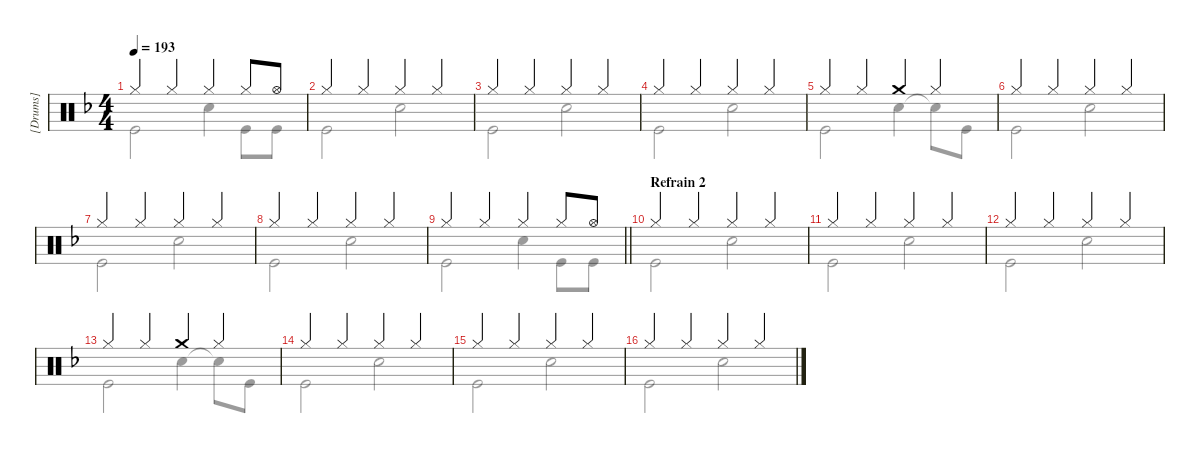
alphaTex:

\hideDynamics
\bracketExtendMode groupsimilarinstruments
\firstSystemTrackNameMode fullname
\otherSystemsTrackNameMode fullname
\otherSystemsTrackNameOrientation horizontal
\track ("[Drums]" "Drums") {instrument percussion}
\staff {score}
\articulation defaults
\voice
\ts (4 4)
\tempo 193
\clef neutral
\ks f "Hi-Hat (closed)".4{dy ff} "Hi-Hat (closed)".4 "Hi-Hat (closed)".4 "Hi-Hat (closed)".8 "Hi-Hat (open)".8
|
"Hi-Hat (closed)".4 "Hi-Hat (closed)".4 "Hi-Hat (closed)".4 "Hi-Hat (closed)".4 |
"Hi-Hat (closed)".4 "Hi-Hat (closed)".4 "Hi-Hat (closed)".4 "Hi-Hat (closed)".4 |
"Hi-Hat (closed)".4 "Hi-Hat (closed)".4 "Hi-Hat (closed)".4 "Hi-Hat (closed)".4 |
"Hi-Hat (closed)".4 "Hi-Hat (closed)".4 "Crash medium (hit)".4 "Hi-Hat (closed)".4 |
"Hi-Hat (closed)".4 "Hi-Hat (closed)".4 "Hi-Hat (closed)".4 "Hi-Hat (closed)".4 |
"Hi-Hat (closed)".4 "Hi-Hat (closed)".4 "Hi-Hat (closed)".4 "Hi-Hat (closed)".4 |
"Hi-Hat (closed)".4 "Hi-Hat (closed)".4 "Hi-Hat (closed)".4 "Hi-Hat (closed)".4 |
\barLineRight lightlight "Hi-Hat (closed)".4 "Hi-Hat (closed)".4 "Hi-Hat (closed)".4 "Hi-Hat (closed)".8 "Hi-Hat (open)".8
|
\section ("" "Refrain 2")
"Hi-Hat (closed)".4 "Hi-Hat (closed)".4 "Hi-Hat (closed)".4 "Hi-Hat (closed)".4 |
"Hi-Hat (closed)".4 "Hi-Hat (closed)".4 "Hi-Hat (closed)".4 "Hi-Hat (closed)".4 |
"Hi-Hat (closed)".4 "Hi-Hat (closed)".4 "Hi-Hat (closed)".4 "Hi-Hat (closed)".4 |
"Hi-Hat (closed)".4 "Hi-Hat (closed)".4 "Crash medium (hit)".4 "Hi-Hat (closed)".4 |
"Hi-Hat (closed)".4 "Hi-Hat (closed)".4 "Hi-Hat (closed)".4 "Hi-Hat (closed)".4 |
"Hi-Hat (closed)".4 "Hi-Hat (closed)".4 "Hi-Hat (closed)".4 "Hi-Hat (closed)".4 |
"Hi-Hat (closed)".4 "Hi-Hat (closed)".4 "Hi-Hat (closed)".4 "Hi-Hat (closed)".4
\voice
\clef neutral
\ottava regular
\simile none
\ks f "Kick (hit)".2{dy f} "Snare (hit) 2".4 "Kick (hit)".8 "Kick (hit)".8
|
"Kick (hit)".2 "Snare (hit) 2".2 |
"Kick (hit)".2 "Snare (hit) 2".2 |
"Kick (hit)".2 "Snare (hit) 2".2 |
"Kick (hit)".2 "Snare (hit) 2".4 "Snare (hit) 2"{t}.8 "Kick (hit)".8 |
"Kick (hit)".2 "Snare (hit) 2".2 |
"Kick (hit)".2 "Snare (hit) 2".2 |
"Kick (hit)".2 "Snare (hit) 2".2 |
\barLineRight lightlight "Kick (hit)".2 "Snare (hit) 2".4 "Kick (hit)".8 "Kick (hit)".8
|
"Kick (hit)".2 "Snare (hit) 2".2 |
"Kick (hit)".2 "Snare (hit) 2".2 |
"Kick (hit)".2 "Snare (hit) 2".2 |
"Kick (hit)".2 "Snare (hit) 2".4 "Snare (hit) 2"{t}.8 "Kick (hit)".8 |
"Kick (hit)".2 "Snare (hit) 2".2 |
"Kick (hit)".2 "Snare (hit) 2".2 |
"Kick (hit)".2 "Snare (hit) 2".2
